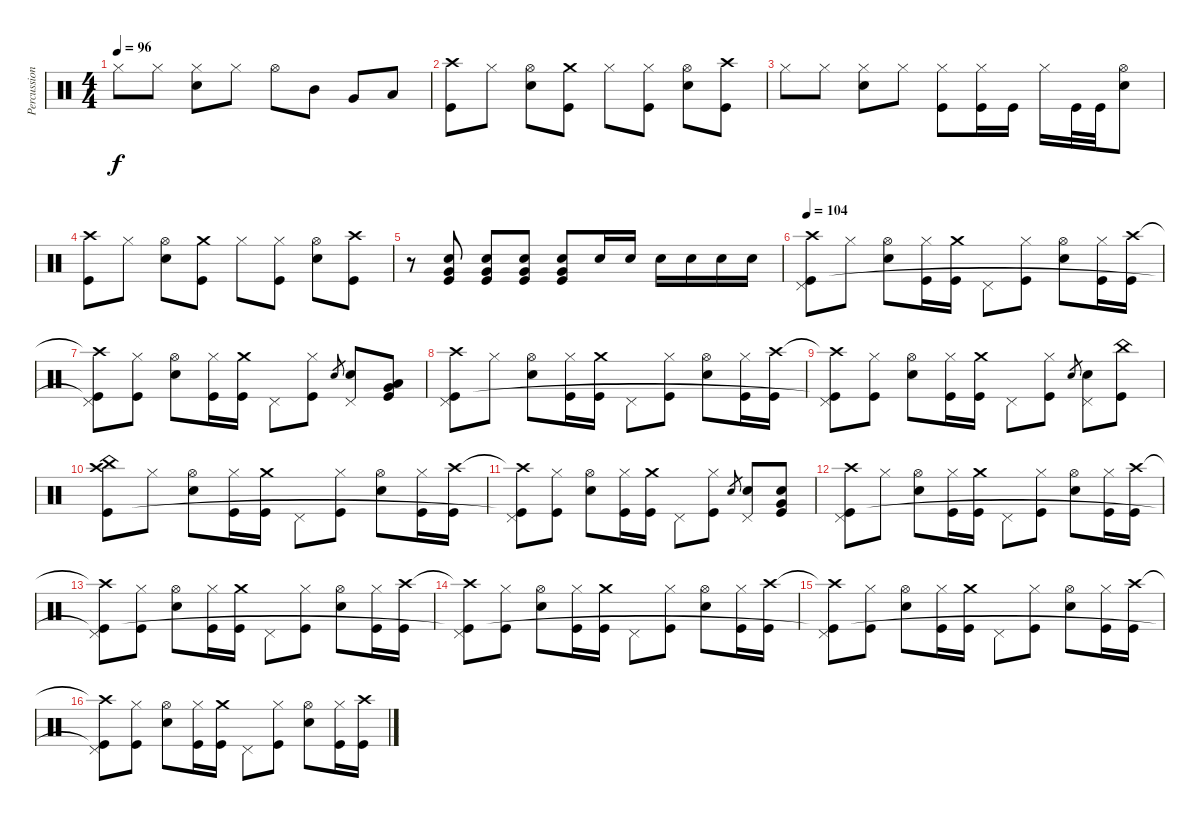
\track ("Percussion" "Percussion") {instrument percussion}
\staff {score}
\articulation defaults
\ts (4 4)
\tempo 96
\clef neutral
\ks c "Hi-Hat (closed)".8{dy f} "Hi-Hat (closed)".8
("Hi-Hat (closed)" "Snare (hit) 2").8 "Hi-Hat (closed)".8 "Hi-Hat (open)".8 "Mid Tom (hit)".8 "Very Low Tom (hit)".8 "Low Floor Tom (hit)".8 |
("Crash high (hit)" "Kick (hit)").8 "Hi-Hat (closed)".8 ("Hi-Hat (open)" "Snare (hit) 2").8 ("Crash medium (hit)" "Kick (hit)").8 "Hi-Hat (closed)".8 ("Hi-Hat (closed)" "Kick (hit)").8 ("Hi-Hat (open)" "Snare (hit) 2").8 ("Crash high (hit)" "Kick (hit)").8 |
"Hi-Hat (closed)".8 "Hi-Hat (closed)".8 ("Hi-Hat (closed)" "Snare (hit) 2").8 "Hi-Hat (closed)".8 ("Hi-Hat (closed)" "Kick (hit)").8 ("Hi-Hat (closed)" "Kick (hit)").16 "Kick (hit)".16 "Hi-Hat (closed)".16 "Kick (hit)".32 "Kick (hit)".32 ("Hi-Hat (open)" "Snare (hit) 2").8 |
("Crash high (hit)" "Kick (hit)").8 "Hi-Hat (closed)".8 ("Hi-Hat (open)" "Snare (hit) 2").8 ("Crash medium (hit)" "Kick (hit)").8 "Hi-Hat (closed)".8 ("Hi-Hat (closed)" "Kick (hit)").8 ("Hi-Hat (open)" "Snare (hit) 2").8 ("Crash high (hit)" "Kick (hit)").8 |
r.8 ("Kick (hit)" "Very Low Tom (hit)" "Snare (hit) 2").8 ("Kick (hit)" "Very Low Tom (hit)" "Snare (hit) 2").8 ("Kick (hit)" "Very Low Tom (hit)" "Snare (hit) 2").8 ("Kick (hit)" "Very Low Tom (hit)" "Snare (hit) 2").8 "Snare (hit) 2".16 "Snare (hit) 2".16 "Snare (hit) 2".16 "Snare (hit) 2".16 "Snare (hit) 2".16 "Snare (hit) 2".16 |
\tempo 104
("Crash high (hit)" "Pedal Hi-Hat (hit)" "Kick (hit)").8 "Hi-Hat (closed)".8 ("Hi-Hat (open)" "Snare (hit) 2").8 ("Hi-Hat (closed)" "Kick (hit)").16 ("Crash medium (hit)" "Kick (hit)").16 "Pedal Hi-Hat (hit)".8 ("Hi-Hat (closed)" "Kick (hit)").8 ("Hi-Hat (open)" "Snare (hit) 2").8 ("Hi-Hat (closed)" "Kick (hit)").16 ("Crash high (hit)" "Kick (hit)").16 |
("Crash high (hit)"{t} "Pedal Hi-Hat (hit)" "Kick (hit)"{t}).8 ("Hi-Hat (closed)" "Kick (hit)").8 ("Hi-Hat (open)" "Snare (hit) 2").8 ("Hi-Hat (closed)" "Kick (hit)").16 ("Crash medium (hit)" "Kick (hit)").16 "Pedal Hi-Hat (hit)".8 ("Hi-Hat (closed)" "Kick (hit)").8 "Snare (hit) 2".8{gr} ("Snare (hit) 2" "Pedal Hi-Hat (hit)").8 ("Very Low Tom (hit)" "Low Floor Tom (hit)" "Kick (hit)").8 |
("Crash high (hit)" "Pedal Hi-Hat (hit)" "Kick (hit)").8 "Hi-Hat (closed)".8 ("Hi-Hat (open)" "Snare (hit) 2").8 ("Hi-Hat (closed)" "Kick (hit)").16 ("Crash medium (hit)" "Kick (hit)").16 "Pedal Hi-Hat (hit)".8 ("Hi-Hat (closed)" "Kick (hit)").8 ("Hi-Hat (open)" "Snare (hit) 2").8 ("Hi-Hat (closed)" "Kick (hit)").16 ("Crash high (hit)" "Kick (hit)").16 |
("Crash high (hit)"{t} "Pedal Hi-Hat (hit)" "Kick (hit)"{t}).8 ("Hi-Hat (closed)" "Kick (hit)").8 ("Hi-Hat (open)" "Snare (hit) 2").8 ("Hi-Hat (closed)" "Kick (hit)").16 ("Crash medium (hit)" "Kick (hit)").16 "Pedal Hi-Hat (hit)".8 ("Hi-Hat (closed)" "Kick (hit)").8 "Snare (hit) 2".8{gr} ("Snare (hit) 2" "Pedal Hi-Hat (hit)").8 ("China (hit)" "Kick (hit)").8 |
("Crash high (hit)" "China (hit)" "Kick (hit)").8 "Hi-Hat (closed)".8 ("Hi-Hat (open)" "Snare (hit) 2").8 ("Hi-Hat (closed)" "Kick (hit)").16 ("Crash medium (hit)" "Kick (hit)").16 "Pedal Hi-Hat (hit)".8 ("Hi-Hat (closed)" "Kick (hit)").8 ("Hi-Hat (open)" "Snare (hit) 2").8 ("Hi-Hat (closed)" "Kick (hit)").16 ("Crash high (hit)" "Kick (hit)").16 |
("Crash high (hit)"{t} "Pedal Hi-Hat (hit)" "Kick (hit)"{t}).8 ("Hi-Hat (closed)" "Kick (hit)").8 ("Hi-Hat (open)" "Snare (hit) 2").8 ("Hi-Hat (closed)" "Kick (hit)").16 ("Crash medium (hit)" "Kick (hit)").16 "Pedal Hi-Hat (hit)".8 ("Hi-Hat (closed)" "Kick (hit)").8 "Snare (hit) 2".8{gr} ("Snare (hit) 2" "Pedal Hi-Hat (hit)").8 ("Very Low Tom (hit)" "Snare (hit)" "Kick (hit)").8 |
("Crash high (hit)" "Pedal Hi-Hat (hit)" "Kick (hit)").8 "Hi-Hat (closed)".8 ("Hi-Hat (open)" "Snare (hit) 2").8 ("Hi-Hat (closed)" "Kick (hit)").16 ("Crash medium (hit)" "Kick (hit)").16 "Pedal Hi-Hat (hit)".8 ("Hi-Hat (closed)" "Kick (hit)").8 ("Hi-Hat (open)" "Snare (hit) 2").8 ("Hi-Hat (closed)" "Kick (hit)").16 ("Crash high (hit)" "Kick (hit)").16 |
("Crash high (hit)"{t} "Pedal Hi-Hat (hit)" "Kick (hit)"{t}).8 ("Hi-Hat (closed)" "Kick (hit)").8 ("Hi-Hat (open)" "Snare (hit) 2").8 ("Hi-Hat (closed)" "Kick (hit)").16 ("Crash medium (hit)" "Kick (hit)").16 "Pedal Hi-Hat (hit)".8 ("Hi-Hat (closed)" "Kick (hit)").8 ("Hi-Hat (open)" "Snare (hit) 2").8 ("Hi-Hat (closed)" "Kick (hit)").16 ("Crash high (hit)" "Kick (hit)").16 |
("Crash high (hit)"{t} "Pedal Hi-Hat (hit)" "Kick (hit)"{t}).8 ("Hi-Hat (closed)" "Kick (hit)").8 ("Hi-Hat (open)" "Snare (hit) 2").8 ("Hi-Hat (closed)" "Kick (hit)").16 ("Crash medium (hit)" "Kick (hit)").16 "Pedal Hi-Hat (hit)".8 ("Hi-Hat (closed)" "Kick (hit)").8 ("Hi-Hat (open)" "Snare (hit) 2").8 ("Hi-Hat (closed)" "Kick (hit)").16 ("Crash high (hit)" "Kick (hit)").16 |
("Crash high (hit)"{t} "Pedal Hi-Hat (hit)" "Kick (hit)"{t}).8 ("Hi-Hat (closed)" "Kick (hit)").8 ("Hi-Hat (open)" "Snare (hit) 2").8 ("Hi-Hat (closed)" "Kick (hit)").16 ("Crash medium (hit)" "Kick (hit)").16 "Pedal Hi-Hat (hit)".8 ("Hi-Hat (closed)" "Kick (hit)").8 ("Hi-Hat (open)" "Snare (hit) 2").8 ("Hi-Hat (closed)" "Kick (hit)").16 ("Crash high (hit)" "Kick (hit)").16 |
("Crash high (hit)"{t} "Pedal Hi-Hat (hit)" "Kick (hit)"{t}).8 ("Hi-Hat (closed)" "Kick (hit)").8 ("Hi-Hat (open)" "Snare (hit) 2").8 ("Hi-Hat (closed)" "Kick (hit)").16 ("Crash medium (hit)" "Kick (hit)").16 "Pedal Hi-Hat (hit)".8 ("Hi-Hat (closed)" "Kick (hit)").8 ("Hi-Hat (open)" "Snare (hit) 2").8 ("Hi-Hat (closed)" "Kick (hit)").16 ("Crash high (hit)" "Kick (hit)").16
